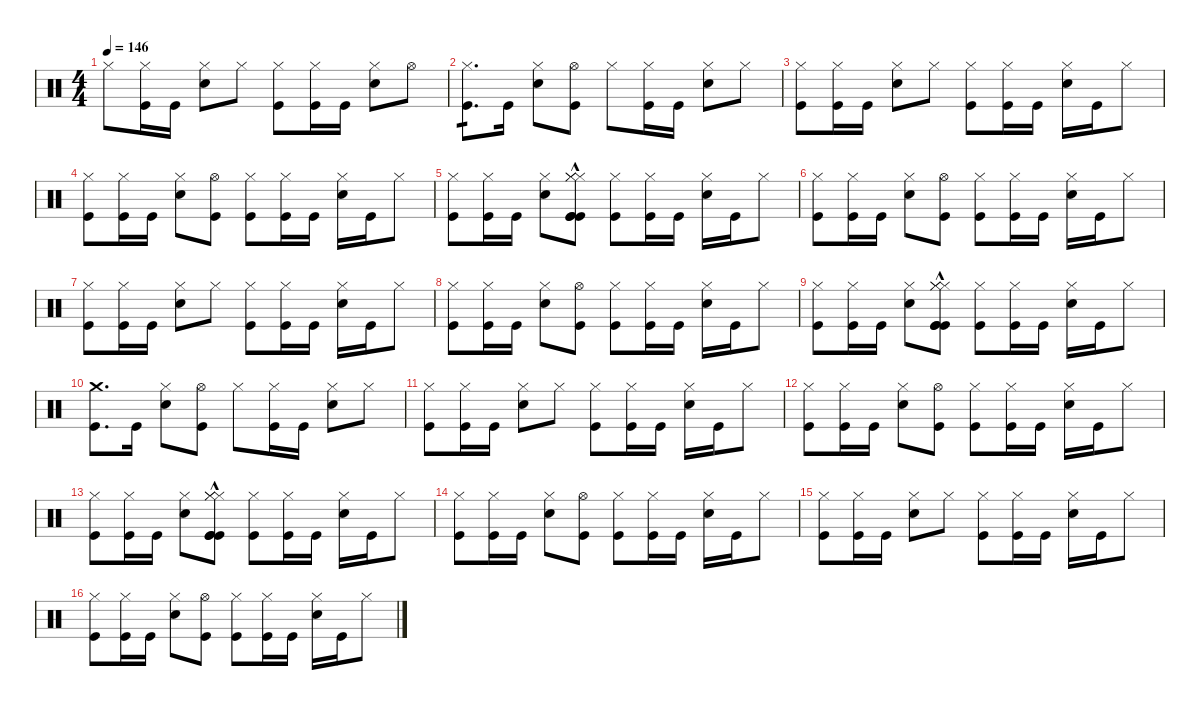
\defaultSystemsLayout 4
\hideDynamics
\bracketExtendMode nobrackets
\singleTrackTrackNamePolicy hidden
\multiTrackTrackNamePolicy hidden
\firstSystemTrackNameMode fullname
\firstSystemTrackNameOrientation horizontal
\otherSystemsTrackNameOrientation horizontal
\track ("Drums" "drm.") {instrument percussion}
\staff {score}
\articulation defaults
\ts (4 4)
\tempo 146
\clef neutral
\ks c "Hi-Hat (closed)".8{dy f beam Down}
("Hi-Hat (closed)" "Kick (hit)").16{beam Down} "Kick (hit)".16{beam Down} ("Hi-Hat (closed)" "Snare (hit) 2").8{beam Down} "Hi-Hat (closed)".8{beam Down} ("Hi-Hat (closed)" "Kick (hit)").8{beam Down} ("Hi-Hat (closed)" "Kick (hit)").16{beam Down} "Kick (hit)".16{beam Down} ("Hi-Hat (closed)" "Snare (hit) 2").8{beam Down} "Hi-Hat (open)".8{beam Down} |
("Hi-Hat (closed)" "Kick (hit)").8{d tp 1 beam Down} "Kick (hit)".16{beam Down} ("Hi-Hat (closed)" "Snare (hit) 2").8{beam Down} ("Hi-Hat (open)" "Kick (hit)").8{beam Down} "Hi-Hat (closed)".8{beam Down} ("Hi-Hat (closed)" "Kick (hit)").16{beam Down} "Kick (hit)".16{beam Down} ("Hi-Hat (closed)" "Snare (hit) 2").8{beam Down} "Hi-Hat (closed)".8{beam Down} |
("Hi-Hat (closed)" "Kick (hit)").8{beam Down} ("Hi-Hat (closed)" "Kick (hit)").16{beam Down} "Kick (hit)".16{beam Down} ("Hi-Hat (closed)" "Snare (hit) 2").8{beam Down} "Hi-Hat (closed)".8{beam Down} ("Hi-Hat (closed)" "Kick (hit)").8{beam Down} ("Hi-Hat (closed)" "Kick (hit)").16{beam Down} "Kick (hit)".16{beam Down} ("Hi-Hat (closed)" "Snare (hit) 2").16{beam Down} "Kick (hit)".16{beam Down} "Hi-Hat (closed)".8{beam Down} |
("Hi-Hat (closed)" "Kick (hit)").8{beam Down} ("Hi-Hat (closed)" "Kick (hit)").16{beam Down} "Kick (hit)".16{beam Down} ("Hi-Hat (closed)" "Snare (hit) 2").8{beam Down} ("Hi-Hat (open)" "Kick (hit)").8{beam Down} ("Hi-Hat (closed)" "Kick (hit)").8{beam Down} ("Hi-Hat (closed)" "Kick (hit)").16{beam Down} "Kick (hit)".16{beam Down} ("Hi-Hat (closed)" "Snare (hit) 2").16{beam Down} "Kick (hit)".16{beam Down} "Hi-Hat (closed)".8{beam Down} |
("Hi-Hat (closed)" "Kick (hit)").8{beam Down} ("Hi-Hat (closed)" "Kick (hit)").16{beam Down} "Kick (hit)".16{beam Down} ("Hi-Hat (closed)" "Snare (hit) 2").8{beam Down} ("Hi-Hat (closed)"{hac} "Hi-Hat (closed)"{hac} "Hi-Hat (closed)"{hac} "Kick (hit)"{hac} "Kick (hit)"{hac} "Kick (hit)"{hac}).8{beam Down} ("Hi-Hat (closed)" "Kick (hit)").8{beam Down} ("Hi-Hat (closed)" "Kick (hit)").16{beam Down} "Kick (hit)".16{beam Down} ("Hi-Hat (closed)" "Snare (hit) 2").16{beam Down} "Kick (hit)".16{beam Down} "Hi-Hat (closed)".8{beam Down} |
("Hi-Hat (closed)" "Kick (hit)").8{beam Down} ("Hi-Hat (closed)" "Kick (hit)").16{beam Down} "Kick (hit)".16{beam Down} ("Hi-Hat (closed)" "Snare (hit) 2").8{beam Down} ("Hi-Hat (open)" "Kick (hit)").8{beam Down} ("Hi-Hat (closed)" "Kick (hit)").8{beam Down} ("Hi-Hat (closed)" "Kick (hit)").16{beam Down} "Kick (hit)".16{beam Down} ("Hi-Hat (closed)" "Snare (hit) 2").16{beam Down} "Kick (hit)".16{beam Down} "Hi-Hat (closed)".8{beam Down} |
("Hi-Hat (closed)" "Kick (hit)").8{beam Down} ("Hi-Hat (closed)" "Kick (hit)").16{beam Down} "Kick (hit)".16{beam Down} ("Hi-Hat (closed)" "Snare (hit) 2").8{beam Down} "Hi-Hat (closed)".8{beam Down} ("Hi-Hat (closed)" "Kick (hit)").8{beam Down} ("Hi-Hat (closed)" "Kick (hit)").16{beam Down} "Kick (hit)".16{beam Down} ("Hi-Hat (closed)" "Snare (hit) 2").16{beam Down} "Kick (hit)".16{beam Down} "Hi-Hat (closed)".8{beam Down} |
("Hi-Hat (closed)" "Kick (hit)").8{beam Down} ("Hi-Hat (closed)" "Kick (hit)").16{beam Down} "Kick (hit)".16{beam Down} ("Hi-Hat (closed)" "Snare (hit) 2").8{beam Down} ("Hi-Hat (open)" "Kick (hit)").8{beam Down} ("Hi-Hat (closed)" "Kick (hit)").8{beam Down} ("Hi-Hat (closed)" "Kick (hit)").16{beam Down} "Kick (hit)".16{beam Down} ("Hi-Hat (closed)" "Snare (hit) 2").16{beam Down} "Kick (hit)".16{beam Down} "Hi-Hat (closed)".8{beam Down} |
("Hi-Hat (closed)" "Kick (hit)").8{beam Down} ("Hi-Hat (closed)" "Kick (hit)").16{beam Down} "Kick (hit)".16{beam Down} ("Hi-Hat (closed)" "Snare (hit) 2").8{beam Down} ("Hi-Hat (closed)"{hac} "Hi-Hat (closed)"{hac} "Hi-Hat (closed)"{hac} "Kick (hit)"{hac} "Kick (hit)"{hac} "Kick (hit)"{hac}).8{beam Down} ("Hi-Hat (closed)" "Kick (hit)").8{beam Down} ("Hi-Hat (closed)" "Kick (hit)").16{beam Down} "Kick (hit)".16{beam Down} ("Hi-Hat (closed)" "Snare (hit) 2").16{beam Down} "Kick (hit)".16{beam Down} "Hi-Hat (closed)".8{beam Down} |
("Crash medium (hit)" "Kick (hit)").8{d beam Down} "Kick (hit)".16{beam Down} ("Hi-Hat (closed)" "Snare (hit) 2").8{beam Down} ("Hi-Hat (open)" "Kick (hit)").8{beam Down} "Hi-Hat (closed)".8{beam Down} ("Hi-Hat (closed)" "Kick (hit)").16{beam Down} "Kick (hit)".16{beam Down} ("Hi-Hat (closed)" "Snare (hit) 2").8{beam Down} "Hi-Hat (closed)".8{beam Down} |
("Hi-Hat (closed)" "Kick (hit)").8{beam Down} ("Hi-Hat (closed)" "Kick (hit)").16{beam Down} "Kick (hit)".16{beam Down} ("Hi-Hat (closed)" "Snare (hit) 2").8{beam Down} "Hi-Hat (closed)".8{beam Down} ("Hi-Hat (closed)" "Kick (hit)").8{beam Down} ("Hi-Hat (closed)" "Kick (hit)").16{beam Down} "Kick (hit)".16{beam Down} ("Hi-Hat (closed)" "Snare (hit) 2").16{beam Down} "Kick (hit)".16{beam Down} "Hi-Hat (closed)".8{beam Down} |
("Hi-Hat (closed)" "Kick (hit)").8{beam Down} ("Hi-Hat (closed)" "Kick (hit)").16{beam Down} "Kick (hit)".16{beam Down} ("Hi-Hat (closed)" "Snare (hit) 2").8{beam Down} ("Hi-Hat (open)" "Kick (hit)").8{beam Down} ("Hi-Hat (closed)" "Kick (hit)").8{beam Down} ("Hi-Hat (closed)" "Kick (hit)").16{beam Down} "Kick (hit)".16{beam Down} ("Hi-Hat (closed)" "Snare (hit) 2").16{beam Down} "Kick (hit)".16{beam Down} "Hi-Hat (closed)".8{beam Down} |
("Hi-Hat (closed)" "Kick (hit)").8{beam Down} ("Hi-Hat (closed)" "Kick (hit)").16{beam Down} "Kick (hit)".16{beam Down} ("Hi-Hat (closed)" "Snare (hit) 2").8{beam Down} ("Hi-Hat (closed)"{hac} "Hi-Hat (closed)"{hac} "Hi-Hat (closed)"{hac} "Kick (hit)"{hac} "Kick (hit)"{hac} "Kick (hit)"{hac}).8{beam Down} ("Hi-Hat (closed)" "Kick (hit)").8{beam Down} ("Hi-Hat (closed)" "Kick (hit)").16{beam Down} "Kick (hit)".16{beam Down} ("Hi-Hat (closed)" "Snare (hit) 2").16{beam Down} "Kick (hit)".16{beam Down} "Hi-Hat (closed)".8{beam Down} |
("Hi-Hat (closed)" "Kick (hit)").8{beam Down} ("Hi-Hat (closed)" "Kick (hit)").16{beam Down} "Kick (hit)".16{beam Down} ("Hi-Hat (closed)" "Snare (hit) 2").8{beam Down} ("Hi-Hat (open)" "Kick (hit)").8{beam Down} ("Hi-Hat (closed)" "Kick (hit)").8{beam Down} ("Hi-Hat (closed)" "Kick (hit)").16{beam Down} "Kick (hit)".16{beam Down} ("Hi-Hat (closed)" "Snare (hit) 2").16{beam Down} "Kick (hit)".16{beam Down} "Hi-Hat (closed)".8{beam Down} |
("Hi-Hat (closed)" "Kick (hit)").8{beam Down} ("Hi-Hat (closed)" "Kick (hit)").16{beam Down} "Kick (hit)".16{beam Down} ("Hi-Hat (closed)" "Snare (hit) 2").8{beam Down} "Hi-Hat (closed)".8{beam Down} ("Hi-Hat (closed)" "Kick (hit)").8{beam Down} ("Hi-Hat (closed)" "Kick (hit)").16{beam Down} "Kick (hit)".16{beam Down} ("Hi-Hat (closed)" "Snare (hit) 2").16{beam Down} "Kick (hit)".16{beam Down} "Hi-Hat (closed)".8{beam Down} |
("Hi-Hat (closed)" "Kick (hit)").8{beam Down} ("Hi-Hat (closed)" "Kick (hit)").16{beam Down} "Kick (hit)".16{beam Down} ("Hi-Hat (closed)" "Snare (hit) 2").8{beam Down} ("Hi-Hat (open)" "Kick (hit)").8{beam Down} ("Hi-Hat (closed)" "Kick (hit)").8{beam Down} ("Hi-Hat (closed)" "Kick (hit)").16{beam Down} "Kick (hit)".16{beam Down} ("Hi-Hat (closed)" "Snare (hit) 2").16{beam Down} "Kick (hit)".16{beam Down} "Hi-Hat (closed)".8{beam Down}
